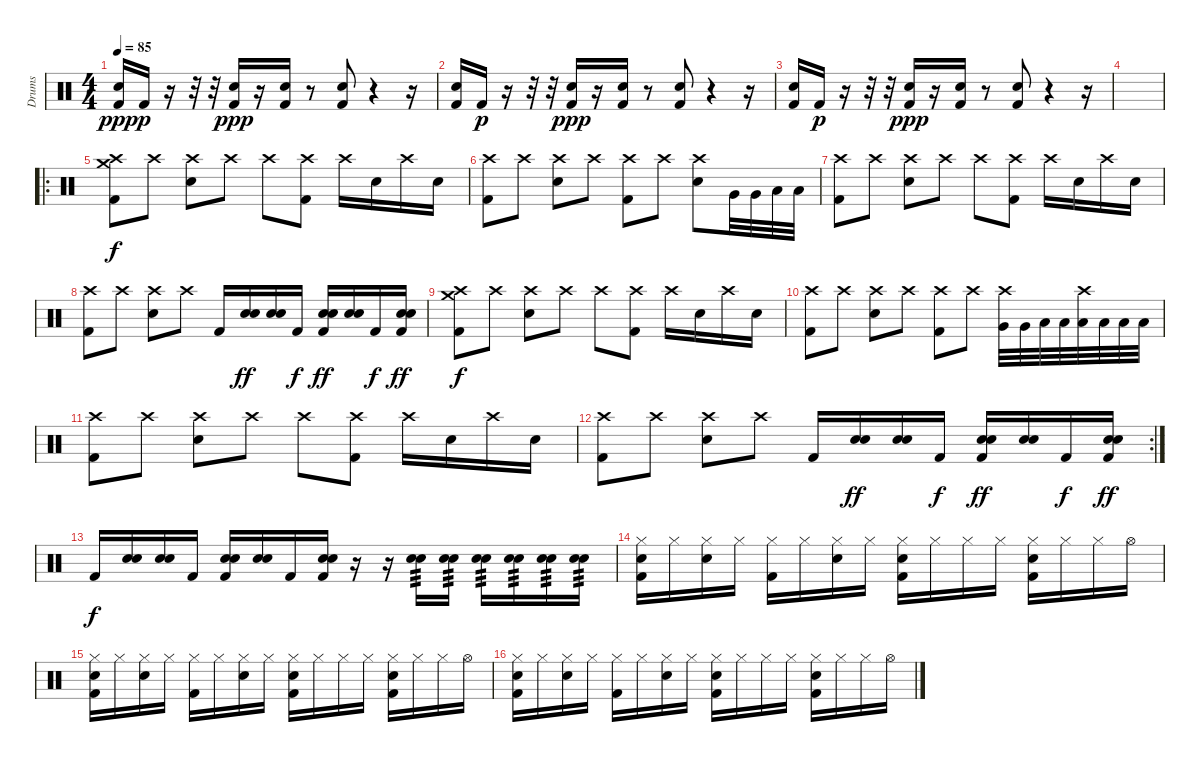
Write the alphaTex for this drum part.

\track ("Drums" "Drums") {instrument percussion}
\staff {score}
\articulation defaults
\ts (4 4)
\tempo 85
\clef neutral
\ks c
("Snare (hit) 2" "Kick (hit) 2").16{dy ppp} "Kick (hit) 2".16{dy p} r.16 r.32 r.32 ("Snare (hit) 2" "Kick (hit) 2").16{dy ppp} r.16 ("Snare (hit) 2" "Kick (hit) 2").16 r.8 ("Snare (hit) 2" "Kick (hit) 2").8 r.4 r.16 |
("Snare (hit) 2" "Kick (hit) 2").16 "Kick (hit) 2".16{dy p} r.16 r.32 r.32 ("Snare (hit) 2" "Kick (hit) 2").16{dy ppp} r.16 ("Snare (hit) 2" "Kick (hit) 2").16 r.8 ("Snare (hit) 2" "Kick (hit) 2").8 r.4 r.16 |
("Snare (hit) 2" "Kick (hit) 2").16 "Kick (hit) 2".16{dy p} r.16 r.32 r.32 ("Snare (hit) 2" "Kick (hit) 2").16{dy ppp} r.16 ("Snare (hit) 2" "Kick (hit) 2").16 r.8 ("Snare (hit) 2" "Kick (hit) 2").8 r.4 r.16 |
|
\ro
("Crash high (hit)" "Crash medium (hit)" "Kick (hit) 2").8{dy f} "Crash high (hit)".8 ("Crash high (hit)" "Electric Snare (hit)").8 "Crash high (hit)".8 "Crash high (hit)".8 ("Crash high (hit)" "Kick (hit) 2").8 "Crash high (hit)".16 "Electric Snare (hit)".16 "Crash high (hit)".16 "Electric Snare (hit)".16 |
("Crash high (hit)" "Kick (hit) 2").8 "Crash high (hit)".8 ("Crash high (hit)" "Electric Snare (hit)").8 "Crash high (hit)".8 ("Crash high (hit)" "Kick (hit) 2").8 "Crash high (hit)".8 ("Crash high (hit)" "Electric Snare (hit)").8 "Very Low Tom (hit)".32 "Very Low Tom (hit)".32 "Low Tom (hit)".32 "Low Tom (hit)".32 |
("Crash high (hit)" "Kick (hit) 2").8 "Crash high (hit)".8 ("Crash high (hit)" "Electric Snare (hit)").8 "Crash high (hit)".8 "Crash high (hit)".8 ("Crash high (hit)" "Kick (hit) 2").8 "Crash high (hit)".16 "Electric Snare (hit)".16 "Crash high (hit)".16 "Electric Snare (hit)".16 |
("Crash high (hit)" "Kick (hit) 2").8 "Crash high (hit)".8 ("Crash high (hit)" "Electric Snare (hit)").8 "Crash high (hit)".8 "Kick (hit) 2".16 ("Electric Snare (hit)" "Electric Snare (hit)").16{dy ff} ("Electric Snare (hit)" "Electric Snare (hit)").16 "Kick (hit) 2".16{dy f} ("Electric Snare (hit)" "Electric Snare (hit)" "Kick (hit) 2").16{dy ff} ("Electric Snare (hit)" "Electric Snare (hit)").16 "Kick (hit) 2".16{dy f} ("Electric Snare (hit)" "Electric Snare (hit)" "Kick (hit) 2").16{dy ff} |
("Crash high (hit)" "Crash medium (hit)" "Kick (hit) 2").8{dy f} "Crash high (hit)".8 ("Crash high (hit)" "Electric Snare (hit)").8 "Crash high (hit)".8 "Crash high (hit)".8 ("Crash high (hit)" "Kick (hit) 2").8 "Crash high (hit)".16 "Electric Snare (hit)".16 "Crash high (hit)".16 "Electric Snare (hit)".16 |
("Crash high (hit)" "Kick (hit) 2").8 "Crash high (hit)".8 ("Crash high (hit)" "Electric Snare (hit)").8 "Crash high (hit)".8 ("Crash high (hit)" "Kick (hit) 2").8 "Crash high (hit)".8 ("Crash high (hit)" "Very Low Tom (hit)").32 "Very Low Tom (hit)".32 "Low Tom (hit)".32 "Low Tom (hit)".32 ("Crash high (hit)" "Low Floor Tom (hit)").32 "Low Floor Tom (hit)".32 "Low Tom (hit)".32 "Low Tom (hit)".32 |
("Crash high (hit)" "Kick (hit) 2").8 "Crash high (hit)".8 ("Crash high (hit)" "Electric Snare (hit)").8 "Crash high (hit)".8 "Crash high (hit)".8 ("Crash high (hit)" "Kick (hit) 2").8 "Crash high (hit)".16 "Electric Snare (hit)".16 "Crash high (hit)".16 "Electric Snare (hit)".16 |
\rc 2
("Crash high (hit)" "Kick (hit) 2").8 "Crash high (hit)".8 ("Crash high (hit)" "Electric Snare (hit)").8 "Crash high (hit)".8 "Kick (hit) 2".16 ("Electric Snare (hit)" "Electric Snare (hit)").16{dy ff} ("Electric Snare (hit)" "Electric Snare (hit)").16 "Kick (hit) 2".16{dy f} ("Electric Snare (hit)" "Electric Snare (hit)" "Kick (hit) 2").16{dy ff} ("Electric Snare (hit)" "Electric Snare (hit)").16 "Kick (hit) 2".16{dy f} ("Electric Snare (hit)" "Electric Snare (hit)" "Kick (hit) 2").16{dy ff} |
"Kick (hit) 2".16{dy f} ("Electric Snare (hit)" "Electric Snare (hit)").16 ("Electric Snare (hit)" "Electric Snare (hit)").16 "Kick (hit) 2".16 ("Electric Snare (hit)" "Electric Snare (hit)" "Kick (hit) 2").16 ("Electric Snare (hit)" "Electric Snare (hit)").16 "Kick (hit) 2".16 ("Electric Snare (hit)" "Electric Snare (hit)" "Kick (hit) 2").16 r.16 r.16 ("Electric Snare (hit)" "Electric Snare (hit)").16{tp 3} ("Electric Snare (hit)" "Electric Snare (hit)").16{tp 3} ("Electric Snare (hit)" "Electric Snare (hit)").16{tp 3} ("Electric Snare (hit)" "Electric Snare (hit)").16{tp 3} ("Electric Snare (hit)" "Electric Snare (hit)").16{tp 3} ("Electric Snare (hit)" "Electric Snare (hit)").16{tp 3} |
("Hi-Hat (closed)" "Electric Snare (hit)" "Kick (hit) 2").16 "Hi-Hat (closed)".16 ("Hi-Hat (closed)" "Electric Snare (hit)").16 "Hi-Hat (closed)".16 ("Hi-Hat (closed)" "Kick (hit) 2").16 "Hi-Hat (closed)".16 ("Hi-Hat (closed)" "Electric Snare (hit)").16 "Hi-Hat (closed)".16 ("Hi-Hat (closed)" "Electric Snare (hit)" "Kick (hit) 2").16 "Hi-Hat (closed)".16 "Hi-Hat (closed)".16 "Hi-Hat (closed)".16 ("Hi-Hat (closed)" "Electric Snare (hit)" "Kick (hit) 2").16 "Hi-Hat (closed)".16 "Hi-Hat (closed)".16 "Hi-Hat (open)".16 |
("Hi-Hat (closed)" "Electric Snare (hit)" "Kick (hit) 2").16 "Hi-Hat (closed)".16 ("Hi-Hat (closed)" "Electric Snare (hit)").16 "Hi-Hat (closed)".16 ("Hi-Hat (closed)" "Kick (hit) 2").16 "Hi-Hat (closed)".16 ("Hi-Hat (closed)" "Electric Snare (hit)").16 "Hi-Hat (closed)".16 ("Hi-Hat (closed)" "Electric Snare (hit)" "Kick (hit) 2").16 "Hi-Hat (closed)".16 "Hi-Hat (closed)".16 "Hi-Hat (closed)".16 ("Hi-Hat (closed)" "Electric Snare (hit)" "Kick (hit) 2").16 "Hi-Hat (closed)".16 "Hi-Hat (closed)".16 "Hi-Hat (open)".16 |
("Hi-Hat (closed)" "Electric Snare (hit)" "Kick (hit) 2").16 "Hi-Hat (closed)".16 ("Hi-Hat (closed)" "Electric Snare (hit)").16 "Hi-Hat (closed)".16 ("Hi-Hat (closed)" "Kick (hit) 2").16 "Hi-Hat (closed)".16 ("Hi-Hat (closed)" "Electric Snare (hit)").16 "Hi-Hat (closed)".16 ("Hi-Hat (closed)" "Electric Snare (hit)" "Kick (hit) 2").16 "Hi-Hat (closed)".16 "Hi-Hat (closed)".16 "Hi-Hat (closed)".16 ("Hi-Hat (closed)" "Electric Snare (hit)" "Kick (hit) 2").16 "Hi-Hat (closed)".16 "Hi-Hat (closed)".16 "Hi-Hat (open)".16
